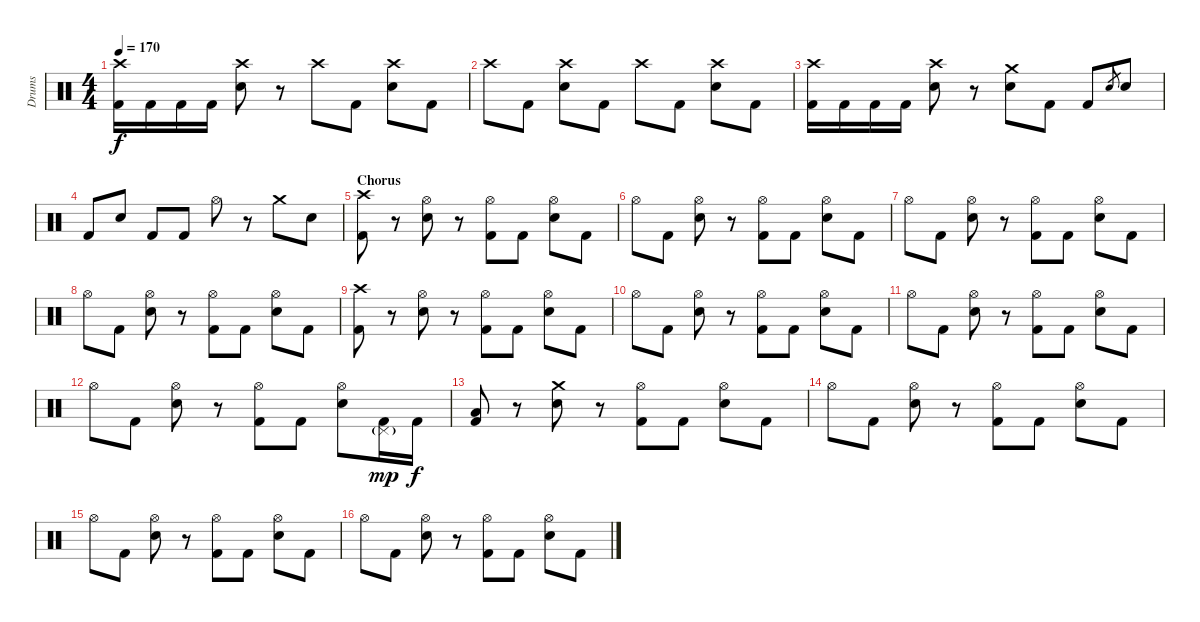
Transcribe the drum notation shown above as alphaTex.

\track ("Drums" "Drums") {instrument percussion}
\staff {score}
\articulation defaults
\ts (4 4)
\tempo 170
\clef neutral
\ks c
("Crash high (hit)" "Kick (hit) 2").16{dy f} "Kick (hit) 2".16 "Kick (hit) 2".16 "Kick (hit) 2".16 ("Crash high (hit)" "Electric Snare (hit)").8 r.8 "Crash high (hit)".8 "Kick (hit) 2".8 ("Crash high (hit)" "Electric Snare (hit)").8 "Kick (hit) 2".8 |
"Crash high (hit)".8 "Kick (hit) 2".8 ("Crash high (hit)" "Electric Snare (hit)").8 "Kick (hit) 2".8 "Crash high (hit)".8 "Kick (hit) 2".8 ("Crash high (hit)" "Electric Snare (hit)").8 "Kick (hit) 2".8 |
("Crash high (hit)" "Kick (hit) 2").16 "Kick (hit) 2".16 "Kick (hit) 2".16 "Kick (hit) 2".16 ("Crash high (hit)" "Electric Snare (hit)").8 r.8 ("Crash medium (hit)" "Electric Snare (hit)").8 "Kick (hit) 2".8 "Kick (hit) 2".8 "Electric Snare (hit)".8{gr} "Electric Snare (hit)".8 |
"Kick (hit) 2".8 "Electric Snare (hit)".8 "Kick (hit) 2".8 "Kick (hit) 2".8 "Hi-Hat (open)".8 r.8 "Crash medium (hit)".8 "Electric Snare (hit)".8 |
\section ("" "Chorus")
("Crash high (hit)" "Kick (hit) 2").8 r.8 ("Hi-Hat (open)" "Electric Snare (hit)").8 r.8 ("Hi-Hat (open)" "Kick (hit) 2").8 "Kick (hit) 2".8 ("Hi-Hat (open)" "Electric Snare (hit)").8 "Kick (hit) 2".8 |
"Hi-Hat (open)".8 "Kick (hit) 2".8 ("Hi-Hat (open)" "Electric Snare (hit)").8 r.8 ("Hi-Hat (open)" "Kick (hit) 2").8 "Kick (hit) 2".8 ("Hi-Hat (open)" "Electric Snare (hit)").8 "Kick (hit) 2".8 |
"Hi-Hat (open)".8 "Kick (hit) 2".8 ("Hi-Hat (open)" "Electric Snare (hit)").8 r.8 ("Hi-Hat (open)" "Kick (hit) 2").8 "Kick (hit) 2".8 ("Hi-Hat (open)" "Electric Snare (hit)").8 "Kick (hit) 2".8 |
"Hi-Hat (open)".8 "Kick (hit) 2".8 ("Hi-Hat (open)" "Electric Snare (hit)").8 r.8 ("Hi-Hat (open)" "Kick (hit) 2").8 "Kick (hit) 2".8 ("Hi-Hat (open)" "Electric Snare (hit)").8 "Kick (hit) 2".8 |
("Crash high (hit)" "Kick (hit) 2").8 r.8 ("Hi-Hat (open)" "Electric Snare (hit)").8 r.8 ("Hi-Hat (open)" "Kick (hit) 2").8 "Kick (hit) 2".8 ("Hi-Hat (open)" "Electric Snare (hit)").8 "Kick (hit) 2".8 |
"Hi-Hat (open)".8 "Kick (hit) 2".8 ("Hi-Hat (open)" "Electric Snare (hit)").8 r.8 ("Hi-Hat (open)" "Kick (hit) 2").8 "Kick (hit) 2".8 ("Hi-Hat (open)" "Electric Snare (hit)").8 "Kick (hit) 2".8 |
"Hi-Hat (open)".8 "Kick (hit) 2".8 ("Hi-Hat (open)" "Electric Snare (hit)").8 r.8 ("Hi-Hat (open)" "Kick (hit) 2").8 "Kick (hit) 2".8 ("Hi-Hat (open)" "Electric Snare (hit)").8 "Kick (hit) 2".8 |
"Hi-Hat (open)".8 "Kick (hit) 2".8 ("Hi-Hat (open)" "Electric Snare (hit)").8 r.8 ("Hi-Hat (open)" "Kick (hit) 2").8 "Kick (hit) 2".8 ("Hi-Hat (open)" "Electric Snare (hit)").8 ("Pedal Hi-Hat (hit)"{g} "Kick (hit) 2").16{dy mp} "Kick (hit) 2".16{dy f} |
("Low Floor Tom (hit)" "Kick (hit) 2").8 r.8 ("Crash medium (hit)" "Electric Snare (hit)").8 r.8 ("Hi-Hat (open)" "Kick (hit) 2").8 "Kick (hit) 2".8 ("Hi-Hat (open)" "Electric Snare (hit)").8 "Kick (hit) 2".8 |
"Hi-Hat (open)".8 "Kick (hit) 2".8 ("Hi-Hat (open)" "Electric Snare (hit)").8 r.8 ("Hi-Hat (open)" "Kick (hit) 2").8 "Kick (hit) 2".8 ("Hi-Hat (open)" "Electric Snare (hit)").8 "Kick (hit) 2".8 |
"Hi-Hat (open)".8 "Kick (hit) 2".8 ("Hi-Hat (open)" "Electric Snare (hit)").8 r.8 ("Hi-Hat (open)" "Kick (hit) 2").8 "Kick (hit) 2".8 ("Hi-Hat (open)" "Electric Snare (hit)").8 "Kick (hit) 2".8 |
"Hi-Hat (open)".8 "Kick (hit) 2".8 ("Hi-Hat (open)" "Electric Snare (hit)").8 r.8 ("Hi-Hat (open)" "Kick (hit) 2").8 "Kick (hit) 2".8 ("Hi-Hat (open)" "Electric Snare (hit)").8 "Kick (hit) 2".8
